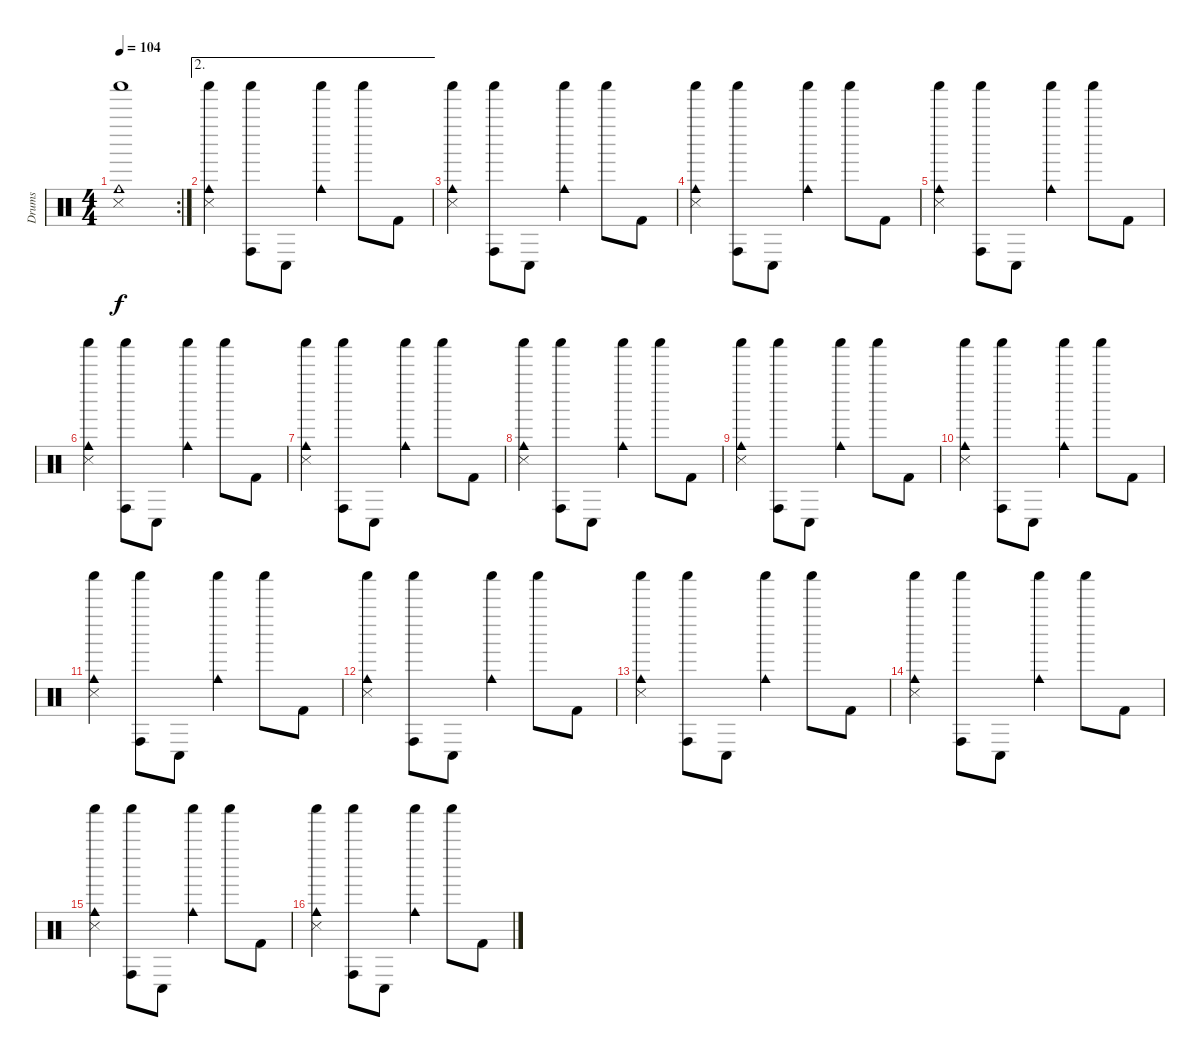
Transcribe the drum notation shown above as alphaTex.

\track ("Drums" "Drums") {instrument percussion}
\staff {score}
\articulation defaults
\rc 2
\ts (4 4)
\tempo 104
\clef neutral
\ks c
("Snare (side stick) 3" "Shaker (hit)" "Cowbell medium (hit)").1{dy f} |
\ae 2
("Snare (side stick) 3" "Shaker (hit)" "Cowbell medium (hit)").4 ("Shaker (hit)" "Conga high (hit)").8 "Conga low (hit)".8 ("Shaker (hit)" "Cowbell medium (hit)").4 "Shaker (hit)".8 "Kick (hit) 2".8 |
("Snare (side stick) 3" "Shaker (hit)" "Cowbell medium (hit)").4 ("Shaker (hit)" "Conga high (hit)").8 "Conga low (hit)".8 ("Shaker (hit)" "Cowbell medium (hit)").4 "Shaker (hit)".8 "Kick (hit) 2".8 |
("Snare (side stick) 3" "Shaker (hit)" "Cowbell medium (hit)").4 ("Shaker (hit)" "Conga high (hit)").8 "Conga low (hit)".8 ("Shaker (hit)" "Cowbell medium (hit)").4 "Shaker (hit)".8 "Kick (hit) 2".8 |
("Snare (side stick) 3" "Shaker (hit)" "Cowbell medium (hit)").4 ("Shaker (hit)" "Conga high (hit)").8 "Conga low (hit)".8 ("Shaker (hit)" "Cowbell medium (hit)").4 "Shaker (hit)".8 "Kick (hit) 2".8 |
("Snare (side stick) 3" "Shaker (hit)" "Cowbell medium (hit)").4 ("Shaker (hit)" "Conga high (hit)").8 "Conga low (hit)".8 ("Shaker (hit)" "Cowbell medium (hit)").4 "Shaker (hit)".8 "Kick (hit) 2".8 |
("Snare (side stick) 3" "Shaker (hit)" "Cowbell medium (hit)").4 ("Shaker (hit)" "Conga high (hit)").8 "Conga low (hit)".8 ("Shaker (hit)" "Cowbell medium (hit)").4 "Shaker (hit)".8 "Kick (hit) 2".8 |
("Snare (side stick) 3" "Shaker (hit)" "Cowbell medium (hit)").4 ("Shaker (hit)" "Conga high (hit)").8 "Conga low (hit)".8 ("Shaker (hit)" "Cowbell medium (hit)").4 "Shaker (hit)".8 "Kick (hit) 2".8 |
("Snare (side stick) 3" "Shaker (hit)" "Cowbell medium (hit)").4 ("Shaker (hit)" "Conga high (hit)").8 "Conga low (hit)".8 ("Shaker (hit)" "Cowbell medium (hit)").4 "Shaker (hit)".8 "Kick (hit) 2".8 |
("Snare (side stick) 3" "Shaker (hit)" "Cowbell medium (hit)").4 ("Shaker (hit)" "Conga high (hit)").8 "Conga low (hit)".8 ("Shaker (hit)" "Cowbell medium (hit)").4 "Shaker (hit)".8 "Kick (hit) 2".8 |
("Snare (side stick) 3" "Shaker (hit)" "Cowbell medium (hit)").4 ("Shaker (hit)" "Conga high (hit)").8 "Conga low (hit)".8 ("Shaker (hit)" "Cowbell medium (hit)").4 "Shaker (hit)".8 "Kick (hit) 2".8 |
("Snare (side stick) 3" "Shaker (hit)" "Cowbell medium (hit)").4 ("Shaker (hit)" "Conga high (hit)").8 "Conga low (hit)".8 ("Shaker (hit)" "Cowbell medium (hit)").4 "Shaker (hit)".8 "Kick (hit) 2".8 |
("Snare (side stick) 3" "Shaker (hit)" "Cowbell medium (hit)").4 ("Shaker (hit)" "Conga high (hit)").8 "Conga low (hit)".8 ("Shaker (hit)" "Cowbell medium (hit)").4 "Shaker (hit)".8 "Kick (hit) 2".8 |
("Snare (side stick) 3" "Shaker (hit)" "Cowbell medium (hit)").4 ("Shaker (hit)" "Conga high (hit)").8 "Conga low (hit)".8 ("Shaker (hit)" "Cowbell medium (hit)").4 "Shaker (hit)".8 "Kick (hit) 2".8 |
("Snare (side stick) 3" "Shaker (hit)" "Cowbell medium (hit)").4 ("Shaker (hit)" "Conga high (hit)").8 "Conga low (hit)".8 ("Shaker (hit)" "Cowbell medium (hit)").4 "Shaker (hit)".8 "Kick (hit) 2".8 |
("Snare (side stick) 3" "Shaker (hit)" "Cowbell medium (hit)").4 ("Shaker (hit)" "Conga high (hit)").8 "Conga low (hit)".8 ("Shaker (hit)" "Cowbell medium (hit)").4 "Shaker (hit)".8 "Kick (hit) 2".8
